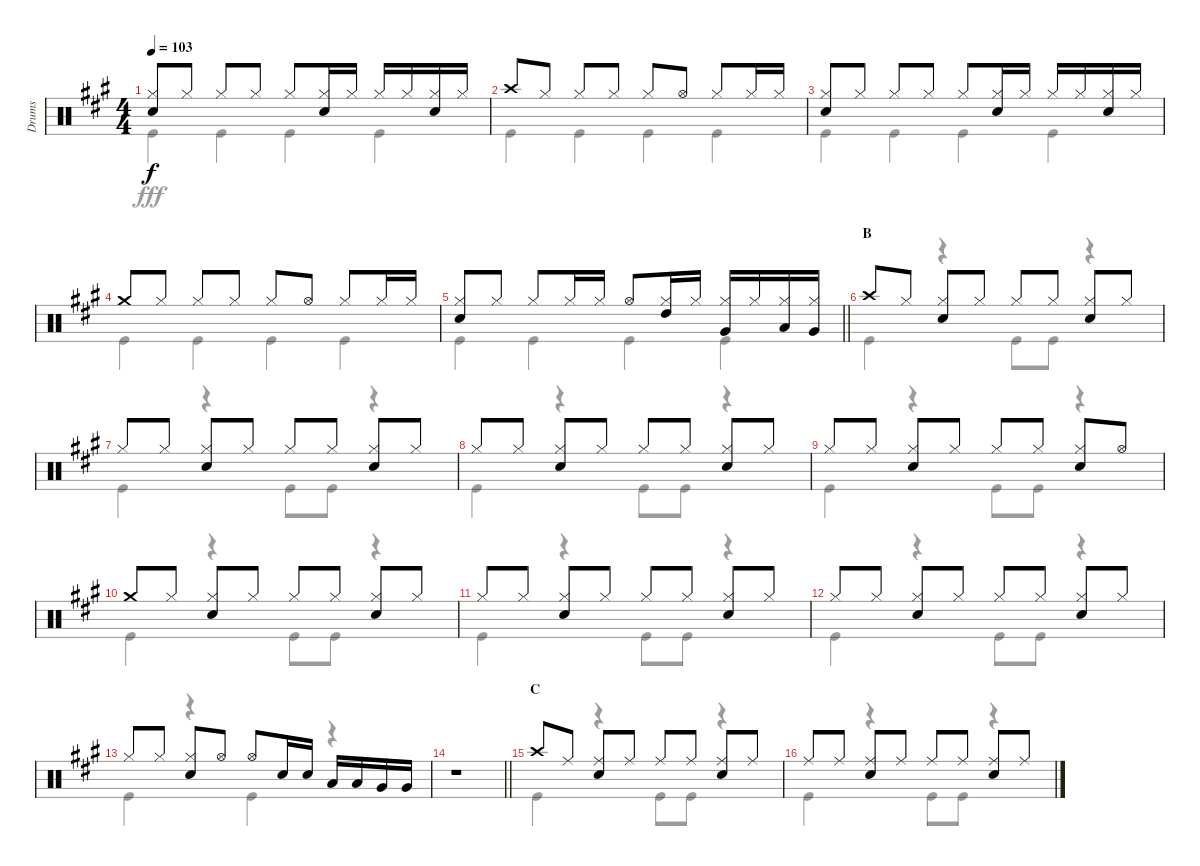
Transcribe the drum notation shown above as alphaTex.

\track ("Drums" "Drums") {instrument percussion}
\staff {score}
\articulation defaults
\voice
\ts (4 4)
\tempo 103
\clef neutral
\ks a
("Hi-Hat (closed)" "Snare (hit) 2").8{dy f} "Hi-Hat (closed)".8 "Hi-Hat (closed)".8 "Hi-Hat (closed)".8 "Hi-Hat (closed)".8 ("Hi-Hat (closed)" "Snare (hit) 2").16 "Hi-Hat (closed)".16 "Hi-Hat (closed)".16 "Hi-Hat (closed)".16 ("Hi-Hat (closed)" "Snare (hit) 2").16 "Hi-Hat (closed)".16 |
"Crash high (hit)".8 "Hi-Hat (closed)".8 "Hi-Hat (closed)".8 "Hi-Hat (closed)".8 "Hi-Hat (closed)".8 "Hi-Hat (open)".8 "Hi-Hat (closed)".8 "Hi-Hat (closed)".16 "Hi-Hat (closed)".16 |
("Hi-Hat (closed)" "Snare (hit) 2").8 "Hi-Hat (closed)".8 "Hi-Hat (closed)".8 "Hi-Hat (closed)".8 "Hi-Hat (closed)".8 ("Hi-Hat (closed)" "Snare (hit) 2").16 "Hi-Hat (closed)".16 "Hi-Hat (closed)".16 "Hi-Hat (closed)".16 ("Hi-Hat (closed)" "Snare (hit) 2").16 "Hi-Hat (closed)".16 |
"Crash medium (hit)".8 "Hi-Hat (closed)".8 "Hi-Hat (closed)".8 "Hi-Hat (closed)".8 "Hi-Hat (closed)".8 "Hi-Hat (open)".8 "Hi-Hat (closed)".8 "Hi-Hat (closed)".16 "Hi-Hat (closed)".16 |
\barLineRight lightlight
("Hi-Hat (closed)" "Snare (hit) 2").8 "Hi-Hat (closed)".8 "Hi-Hat (closed)".8 "Hi-Hat (closed)".16 "Hi-Hat (closed)".16 "Hi-Hat (open)".8 ("Hi-Hat (closed)" "High Tom (hit)").16 "Hi-Hat (closed)".16 ("Hi-Hat (closed)" "Very Low Tom (hit)").16 "Hi-Hat (closed)".16 ("Hi-Hat (closed)" "Low Tom (hit)").16 ("Hi-Hat (closed)" "Very Low Tom (hit)").16 |
\section ("" "B")
"Crash high (hit)".8 "Hi-Hat (closed)".8 ("Hi-Hat (closed)" "Snare (hit) 2").8 "Hi-Hat (closed)".8 "Hi-Hat (closed)".8 "Hi-Hat (closed)".8 ("Hi-Hat (closed)" "Snare (hit) 2").8 "Hi-Hat (closed)".8 |
"Hi-Hat (closed)".8 "Hi-Hat (closed)".8 ("Hi-Hat (closed)" "Snare (hit) 2").8 "Hi-Hat (closed)".8 "Hi-Hat (closed)".8 "Hi-Hat (closed)".8 ("Hi-Hat (closed)" "Snare (hit) 2").8 "Hi-Hat (closed)".8 |
"Hi-Hat (closed)".8 "Hi-Hat (closed)".8 ("Hi-Hat (closed)" "Snare (hit) 2").8 "Hi-Hat (closed)".8 "Hi-Hat (closed)".8 "Hi-Hat (closed)".8 ("Hi-Hat (closed)" "Snare (hit) 2").8 "Hi-Hat (closed)".8 |
"Hi-Hat (closed)".8 "Hi-Hat (closed)".8 ("Hi-Hat (closed)" "Snare (hit) 2").8 "Hi-Hat (closed)".8 "Hi-Hat (closed)".8 "Hi-Hat (closed)".8 ("Hi-Hat (closed)" "Snare (hit) 2").8 "Hi-Hat (open)".8 |
"Crash medium (hit)".8 "Hi-Hat (closed)".8 ("Hi-Hat (closed)" "Snare (hit) 2").8 "Hi-Hat (closed)".8 "Hi-Hat (closed)".8 "Hi-Hat (closed)".8 ("Hi-Hat (closed)" "Snare (hit) 2").8 "Hi-Hat (closed)".8 |
"Hi-Hat (closed)".8 "Hi-Hat (closed)".8 ("Hi-Hat (closed)" "Snare (hit) 2").8 "Hi-Hat (closed)".8 "Hi-Hat (closed)".8 "Hi-Hat (closed)".8 ("Hi-Hat (closed)" "Snare (hit) 2").8 "Hi-Hat (closed)".8 |
"Hi-Hat (closed)".8 "Hi-Hat (closed)".8 ("Hi-Hat (closed)" "Snare (hit) 2").8 "Hi-Hat (closed)".8 "Hi-Hat (closed)".8 "Hi-Hat (closed)".8 ("Hi-Hat (closed)" "Snare (hit) 2").8 "Hi-Hat (closed)".8 |
"Hi-Hat (closed)".8 "Hi-Hat (closed)".8 ("Hi-Hat (closed)" "Snare (hit) 2").8 "Hi-Hat (open)".8 "Hi-Hat (open)".8 "Snare (hit) 2".16 "Snare (hit) 2".16 "Low Tom (hit)".16 "Low Tom (hit)".16 "Very Low Tom (hit)".16 "Very Low Tom (hit)".16 |
\barLineRight lightlight
r.1 |
\section ("" "C")
"Crash high (hit)".8 "Ride (middle)".8 ("Ride (middle)" "Snare (hit) 2").8 "Ride (middle)".8 "Ride (middle)".8 "Ride (middle)".8 ("Ride (middle)" "Snare (hit) 2").8 "Ride (middle)".8 |
"Ride (middle)".8 "Ride (middle)".8 ("Ride (middle)" "Snare (hit) 2").8 "Ride (middle)".8 "Ride (middle)".8 "Ride (middle)".8 ("Ride (middle)" "Snare (hit) 2").8 "Ride (middle)".8
\voice
\clef neutral
\ottava regular
\simile none
\ks a "Kick (hit)".4{dy fff} "Kick (hit)".4 "Kick (hit)".4 "Kick (hit)".4
|
"Kick (hit)".4 "Kick (hit)".4 "Kick (hit)".4 "Kick (hit)".4 |
"Kick (hit)".4 "Kick (hit)".4 "Kick (hit)".4 "Kick (hit)".4 |
"Kick (hit)".4 "Kick (hit)".4 "Kick (hit)".4 "Kick (hit)".4 |
\barLineRight lightlight "Kick (hit)".4 "Kick (hit)".4 "Kick (hit)".4 "Kick (hit)".4
|
"Kick (hit)".4 r.4 "Kick (hit)".8 "Kick (hit)".8 r.4 |
"Kick (hit)".4 r.4 "Kick (hit)".8 "Kick (hit)".8 r.4 |
"Kick (hit)".4 r.4 "Kick (hit)".8 "Kick (hit)".8 r.4 |
"Kick (hit)".4 r.4 "Kick (hit)".8 "Kick (hit)".8 r.4 |
"Kick (hit)".4 r.4 "Kick (hit)".8 "Kick (hit)".8 r.4 |
"Kick (hit)".4 r.4 "Kick (hit)".8 "Kick (hit)".8 r.4 |
"Kick (hit)".4 r.4 "Kick (hit)".8 "Kick (hit)".8 r.4 |
"Kick (hit)".4 r.4 "Kick (hit)".4 r.4 |
\barLineRight lightlight
r.1 |
"Kick (hit)".4 r.4 "Kick (hit)".8 "Kick (hit)".8 r.4 |
"Kick (hit)".4 r.4 "Kick (hit)".8 "Kick (hit)".8 r.4
